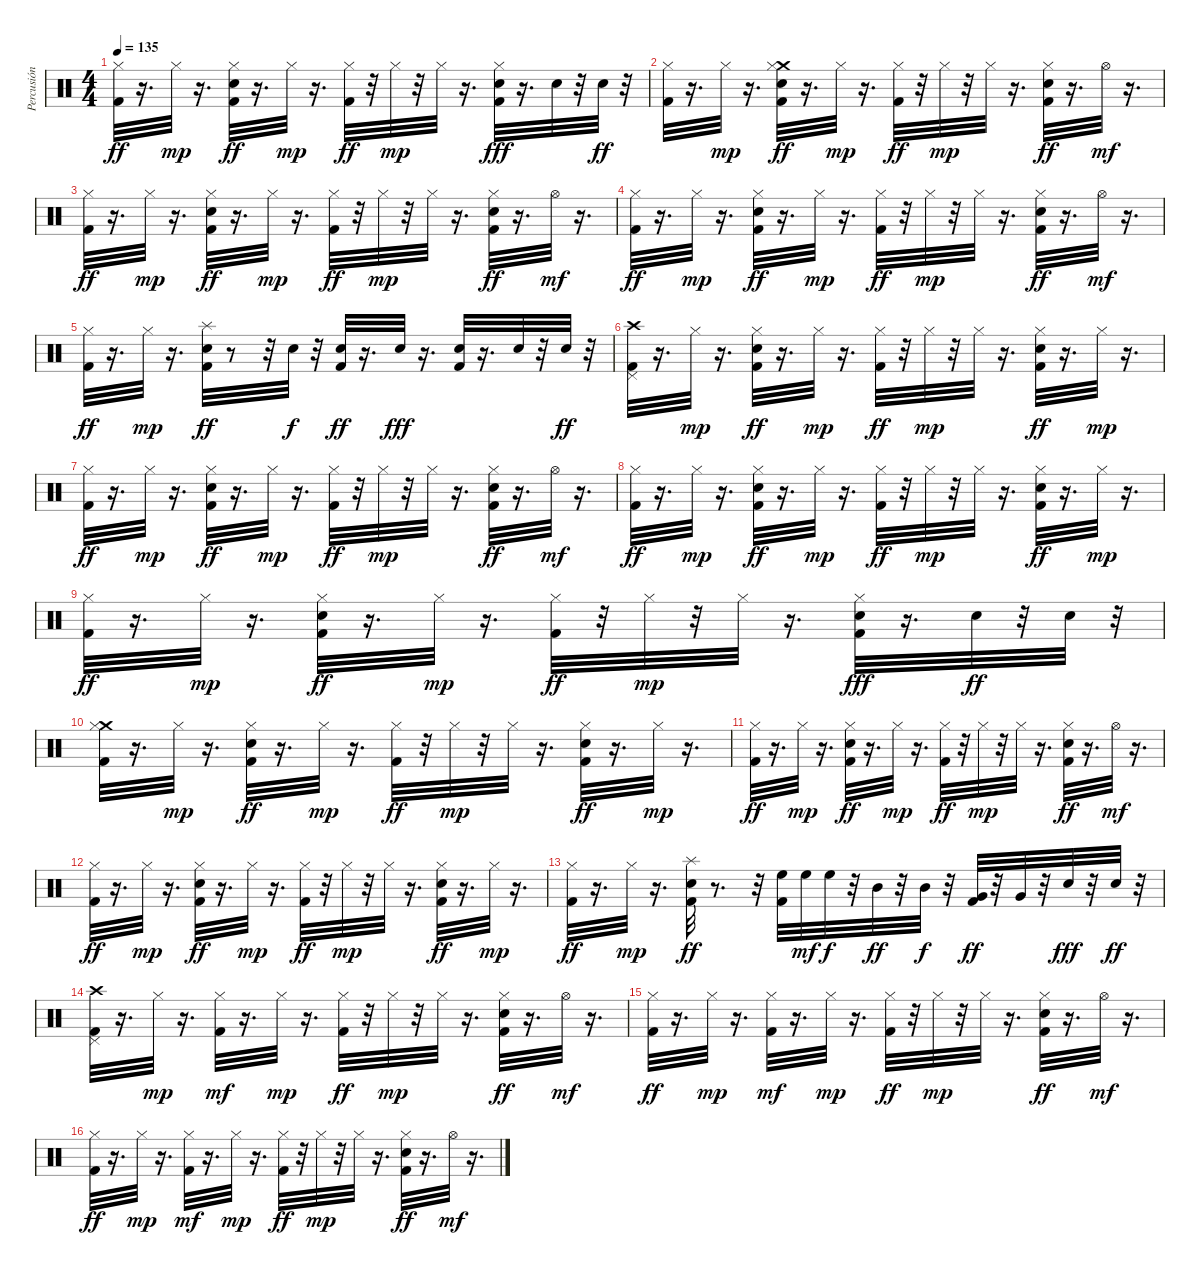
\track ("Percusión" "Percusión") {instrument percussion}
\staff {score}
\articulation defaults
\ts (4 4)
\tempo 135
\clef neutral
\ks c
("Hi-Hat (closed)" "Kick (hit) 2").32{dy ff} r.16{d} "Hi-Hat (closed)".32{dy mp} r.16{d} ("Hi-Hat (closed)" "Electric Snare (hit)" "Kick (hit) 2").32{dy ff} r.16{d} "Hi-Hat (closed)".32{dy mp} r.16{d} ("Hi-Hat (closed)" "Kick (hit) 2").32{dy ff} r.32 "Hi-Hat (closed)".32{dy mp} r.32 "Hi-Hat (closed)".32 r.16{d} ("Hi-Hat (closed)" "Electric Snare (hit)" "Kick (hit) 2").32{dy fff} r.16{d} "Electric Snare (hit)".32 r.32 "Electric Snare (hit)".32{dy ff} r.32 |
("Hi-Hat (closed)" "Kick (hit) 2").32 r.16{d} "Hi-Hat (closed)".32{dy mp} r.16{d} ("Crash medium (hit)" "Hi-Hat (closed)" "Electric Snare (hit)" "Kick (hit) 2").32{dy ff} r.16{d} "Hi-Hat (closed)".32{dy mp} r.16{d} ("Hi-Hat (closed)" "Kick (hit) 2").32{dy ff} r.32 "Hi-Hat (closed)".32{dy mp} r.32 "Hi-Hat (closed)".32 r.16{d} ("Hi-Hat (closed)" "Electric Snare (hit)" "Kick (hit) 2").32{dy ff} r.16{d} "Hi-Hat (open)".32{dy mf} r.16{d} |
("Hi-Hat (closed)" "Kick (hit) 2").32{dy ff} r.16{d} "Hi-Hat (closed)".32{dy mp} r.16{d} ("Hi-Hat (closed)" "Electric Snare (hit)" "Kick (hit) 2").32{dy ff} r.16{d} "Hi-Hat (closed)".32{dy mp} r.16{d} ("Hi-Hat (closed)" "Kick (hit) 2").32{dy ff} r.32 "Hi-Hat (closed)".32{dy mp} r.32 "Hi-Hat (closed)".32 r.16{d} ("Hi-Hat (closed)" "Electric Snare (hit)" "Kick (hit) 2").32{dy ff} r.16{d} "Hi-Hat (open)".32{dy mf} r.16{d} |
("Hi-Hat (closed)" "Kick (hit) 2").32{dy ff} r.16{d} "Hi-Hat (closed)".32{dy mp} r.16{d} ("Hi-Hat (closed)" "Electric Snare (hit)" "Kick (hit) 2").32{dy ff} r.16{d} "Hi-Hat (closed)".32{dy mp} r.16{d} ("Hi-Hat (closed)" "Kick (hit) 2").32{dy ff} r.32 "Hi-Hat (closed)".32{dy mp} r.32 "Hi-Hat (closed)".32 r.16{d} ("Hi-Hat (closed)" "Electric Snare (hit)" "Kick (hit) 2").32{dy ff} r.16{d} "Hi-Hat (open)".32{dy mf} r.16{d} |
("Hi-Hat (closed)" "Kick (hit) 2").32{dy ff} r.16{d} "Hi-Hat (closed)".32{dy mp} r.16{d} ("Splash (hit)" "Electric Snare (hit)" "Kick (hit) 2").32{dy ff} r.8 r.32 "Electric Snare (hit)".32{dy f} r.32 ("Electric Snare (hit)" "Kick (hit) 2").32{dy ff} r.16{d} "Electric Snare (hit)".32{dy fff} r.16{d} ("Electric Snare (hit)" "Kick (hit) 2").32 r.16{d} "Electric Snare (hit)".32 r.32 "Electric Snare (hit)".32{dy ff} r.32 |
("Crash high (hit)" "Pedal Hi-Hat (hit)" "Kick (hit) 2").32 r.16{d} "Hi-Hat (closed)".32{dy mp} r.16{d} ("Hi-Hat (closed)" "Electric Snare (hit)" "Kick (hit) 2").32{dy ff} r.16{d} "Hi-Hat (closed)".32{dy mp} r.16{d} ("Hi-Hat (closed)" "Kick (hit) 2").32{dy ff} r.32 "Hi-Hat (closed)".32{dy mp} r.32 "Hi-Hat (closed)".32 r.16{d} ("Hi-Hat (closed)" "Electric Snare (hit)" "Kick (hit) 2").32{dy ff} r.16{d} "Hi-Hat (closed)".32{dy mp} r.16{d} |
("Hi-Hat (closed)" "Kick (hit) 2").32{dy ff} r.16{d} "Hi-Hat (closed)".32{dy mp} r.16{d} ("Hi-Hat (closed)" "Electric Snare (hit)" "Kick (hit) 2").32{dy ff} r.16{d} "Hi-Hat (closed)".32{dy mp} r.16{d} ("Hi-Hat (closed)" "Kick (hit) 2").32{dy ff} r.32 "Hi-Hat (closed)".32{dy mp} r.32 "Hi-Hat (closed)".32 r.16{d} ("Hi-Hat (closed)" "Electric Snare (hit)" "Kick (hit) 2").32{dy ff} r.16{d} "Hi-Hat (open)".32{dy mf} r.16{d} |
("Hi-Hat (closed)" "Kick (hit) 2").32{dy ff} r.16{d} "Hi-Hat (closed)".32{dy mp} r.16{d} ("Hi-Hat (closed)" "Electric Snare (hit)" "Kick (hit) 2").32{dy ff} r.16{d} "Hi-Hat (closed)".32{dy mp} r.16{d} ("Hi-Hat (closed)" "Kick (hit) 2").32{dy ff} r.32 "Hi-Hat (closed)".32{dy mp} r.32 "Hi-Hat (closed)".32 r.16{d} ("Hi-Hat (closed)" "Electric Snare (hit)" "Kick (hit) 2").32{dy ff} r.16{d} "Hi-Hat (closed)".32{dy mp} r.16{d} |
("Hi-Hat (closed)" "Kick (hit) 2").32{dy ff} r.16{d} "Hi-Hat (closed)".32{dy mp} r.16{d} ("Hi-Hat (closed)" "Electric Snare (hit)" "Kick (hit) 2").32{dy ff} r.16{d} "Hi-Hat (closed)".32{dy mp} r.16{d} ("Hi-Hat (closed)" "Kick (hit) 2").32{dy ff} r.32 "Hi-Hat (closed)".32{dy mp} r.32 "Hi-Hat (closed)".32 r.16{d} ("Hi-Hat (closed)" "Electric Snare (hit)" "Kick (hit) 2").32{dy fff} r.16{d} "Electric Snare (hit)".32{dy ff} r.32 "Electric Snare (hit)".32 r.32 |
("Crash medium (hit)" "Hi-Hat (closed)" "Kick (hit) 2").32 r.16{d} "Hi-Hat (closed)".32{dy mp} r.16{d} ("Hi-Hat (closed)" "Electric Snare (hit)" "Kick (hit) 2").32{dy ff} r.16{d} "Hi-Hat (closed)".32{dy mp} r.16{d} ("Hi-Hat (closed)" "Kick (hit) 2").32{dy ff} r.32 "Hi-Hat (closed)".32{dy mp} r.32 "Hi-Hat (closed)".32 r.16{d} ("Hi-Hat (closed)" "Electric Snare (hit)" "Kick (hit) 2").32{dy ff} r.16{d} "Hi-Hat (closed)".32{dy mp} r.16{d} |
("Hi-Hat (closed)" "Kick (hit) 2").32{dy ff} r.16{d} "Hi-Hat (closed)".32{dy mp} r.16{d} ("Hi-Hat (closed)" "Electric Snare (hit)" "Kick (hit) 2").32{dy ff} r.16{d} "Hi-Hat (closed)".32{dy mp} r.16{d} ("Hi-Hat (closed)" "Kick (hit) 2").32{dy ff} r.32 "Hi-Hat (closed)".32{dy mp} r.32 "Hi-Hat (closed)".32 r.16{d} ("Hi-Hat (closed)" "Electric Snare (hit)" "Kick (hit) 2").32{dy ff} r.16{d} "Hi-Hat (open)".32{dy mf} r.16{d} |
("Hi-Hat (closed)" "Kick (hit) 2").32{dy ff} r.16{d} "Hi-Hat (closed)".32{dy mp} r.16{d} ("Hi-Hat (closed)" "Electric Snare (hit)" "Kick (hit) 2").32{dy ff} r.16{d} "Hi-Hat (closed)".32{dy mp} r.16{d} ("Hi-Hat (closed)" "Kick (hit) 2").32{dy ff} r.32 "Hi-Hat (closed)".32{dy mp} r.32 "Hi-Hat (closed)".32 r.16{d} ("Hi-Hat (closed)" "Electric Snare (hit)" "Kick (hit) 2").32{dy ff} r.16{d} "Hi-Hat (closed)".32{dy mp} r.16{d} |
("Hi-Hat (closed)" "Kick (hit) 2").32{dy ff} r.16{d} "Hi-Hat (closed)".32{dy mp} r.16{d} ("Splash (hit)" "Electric Snare (hit)" "Kick (hit) 2").32{dy ff} r.8{d} r.32 ("High Floor Tom (hit)" "Kick (hit) 2").32 "High Floor Tom (hit)".32{dy mf} "High Floor Tom (hit)".32{dy f} r.32 "Mid Tom (hit)".32{dy ff} r.32 "Mid Tom (hit)".32{dy f} r.32 ("Very Low Tom (hit)" "Kick (hit) 2").32{dy ff} r.32 "Very Low Tom (hit)".32 r.32 "Electric Snare (hit)".32{dy fff} r.32 "Electric Snare (hit)".32{dy ff} r.32 |
("Crash high (hit)" "Pedal Hi-Hat (hit)" "Kick (hit) 2").32 r.16{d} "Hi-Hat (closed)".32{dy mp} r.16{d} ("Hi-Hat (closed)" "Kick (hit) 2").32{dy mf} r.16{d} "Hi-Hat (closed)".32{dy mp} r.16{d} ("Hi-Hat (closed)" "Kick (hit) 2").32{dy ff} r.32 "Hi-Hat (closed)".32{dy mp} r.32 "Hi-Hat (closed)".32 r.16{d} ("Hi-Hat (closed)" "Electric Snare (hit)" "Kick (hit) 2").32{dy ff} r.16{d} "Hi-Hat (open)".32{dy mf} r.16{d} |
("Hi-Hat (closed)" "Kick (hit) 2").32{dy ff} r.16{d} "Hi-Hat (closed)".32{dy mp} r.16{d} ("Hi-Hat (closed)" "Kick (hit) 2").32{dy mf} r.16{d} "Hi-Hat (closed)".32{dy mp} r.16{d} ("Hi-Hat (closed)" "Kick (hit) 2").32{dy ff} r.32 "Hi-Hat (closed)".32{dy mp} r.32 "Hi-Hat (closed)".32 r.16{d} ("Hi-Hat (closed)" "Electric Snare (hit)" "Kick (hit) 2").32{dy ff} r.16{d} "Hi-Hat (open)".32{dy mf} r.16{d} |
("Hi-Hat (closed)" "Kick (hit) 2").32{dy ff} r.16{d} "Hi-Hat (closed)".32{dy mp} r.16{d} ("Hi-Hat (closed)" "Kick (hit) 2").32{dy mf} r.16{d} "Hi-Hat (closed)".32{dy mp} r.16{d} ("Hi-Hat (closed)" "Kick (hit) 2").32{dy ff} r.32 "Hi-Hat (closed)".32{dy mp} r.32 "Hi-Hat (closed)".32 r.16{d} ("Hi-Hat (closed)" "Electric Snare (hit)" "Kick (hit) 2").32{dy ff} r.16{d} "Hi-Hat (open)".32{dy mf} r.16{d}
